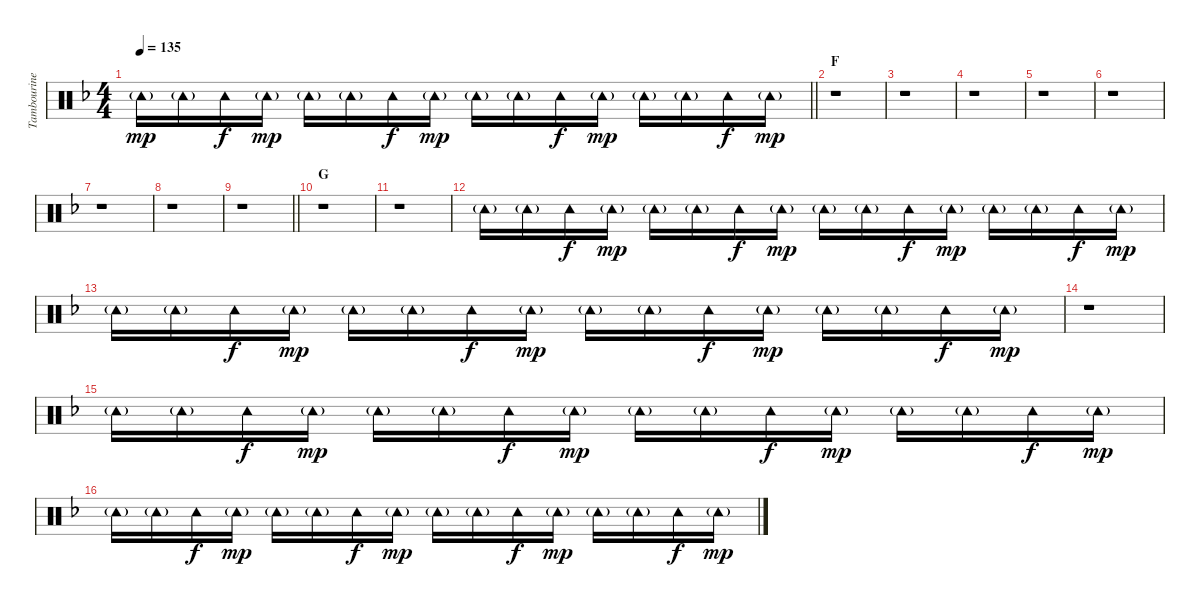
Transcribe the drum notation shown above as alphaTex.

\track ("Tambourine" "Tambourine") {instrument percussion}
\staff {score}
\articulation defaults
\ts (4 4)
\tempo 135
\clef neutral
\barLineRight lightlight
\ks f "Tambourine (hit)"{g}.16{dy mp} "Tambourine (hit)"{g}.16 "Tambourine (hit)".16{dy f} "Tambourine (hit)"{g}.16{dy mp} "Tambourine (hit)"{g}.16 "Tambourine (hit)"{g}.16 "Tambourine (hit)".16{dy f} "Tambourine (hit)"{g}.16{dy mp} "Tambourine (hit)"{g}.16 "Tambourine (hit)"{g}.16 "Tambourine (hit)".16{dy f} "Tambourine (hit)"{g}.16{dy mp} "Tambourine (hit)"{g}.16 "Tambourine (hit)"{g}.16 "Tambourine (hit)".16{dy f} "Tambourine (hit)"{g}.16{dy mp}
|
\section ("" "F")
r.1 |
r.1 |
r.1 |
r.1 |
r.1 |
r.1 |
r.1 |
\barLineRight lightlight
r.1 |
\section ("" "G")
r.1 |
r.1 |
"Tambourine (hit)"{g}.16 "Tambourine (hit)"{g}.16 "Tambourine (hit)".16{dy f} "Tambourine (hit)"{g}.16{dy mp} "Tambourine (hit)"{g}.16 "Tambourine (hit)"{g}.16 "Tambourine (hit)".16{dy f} "Tambourine (hit)"{g}.16{dy mp} "Tambourine (hit)"{g}.16 "Tambourine (hit)"{g}.16 "Tambourine (hit)".16{dy f} "Tambourine (hit)"{g}.16{dy mp} "Tambourine (hit)"{g}.16 "Tambourine (hit)"{g}.16 "Tambourine (hit)".16{dy f} "Tambourine (hit)"{g}.16{dy mp} |
"Tambourine (hit)"{g}.16 "Tambourine (hit)"{g}.16 "Tambourine (hit)".16{dy f} "Tambourine (hit)"{g}.16{dy mp} "Tambourine (hit)"{g}.16 "Tambourine (hit)"{g}.16 "Tambourine (hit)".16{dy f} "Tambourine (hit)"{g}.16{dy mp} "Tambourine (hit)"{g}.16 "Tambourine (hit)"{g}.16 "Tambourine (hit)".16{dy f} "Tambourine (hit)"{g}.16{dy mp} "Tambourine (hit)"{g}.16 "Tambourine (hit)"{g}.16 "Tambourine (hit)".16{dy f} "Tambourine (hit)"{g}.16{dy mp} |
r.1 |
"Tambourine (hit)"{g}.16 "Tambourine (hit)"{g}.16 "Tambourine (hit)".16{dy f} "Tambourine (hit)"{g}.16{dy mp} "Tambourine (hit)"{g}.16 "Tambourine (hit)"{g}.16 "Tambourine (hit)".16{dy f} "Tambourine (hit)"{g}.16{dy mp} "Tambourine (hit)"{g}.16 "Tambourine (hit)"{g}.16 "Tambourine (hit)".16{dy f} "Tambourine (hit)"{g}.16{dy mp} "Tambourine (hit)"{g}.16 "Tambourine (hit)"{g}.16 "Tambourine (hit)".16{dy f} "Tambourine (hit)"{g}.16{dy mp} |
"Tambourine (hit)"{g}.16 "Tambourine (hit)"{g}.16 "Tambourine (hit)".16{dy f} "Tambourine (hit)"{g}.16{dy mp} "Tambourine (hit)"{g}.16 "Tambourine (hit)"{g}.16 "Tambourine (hit)".16{dy f} "Tambourine (hit)"{g}.16{dy mp} "Tambourine (hit)"{g}.16 "Tambourine (hit)"{g}.16 "Tambourine (hit)".16{dy f} "Tambourine (hit)"{g}.16{dy mp} "Tambourine (hit)"{g}.16 "Tambourine (hit)"{g}.16 "Tambourine (hit)".16{dy f} "Tambourine (hit)"{g}.16{dy mp}
